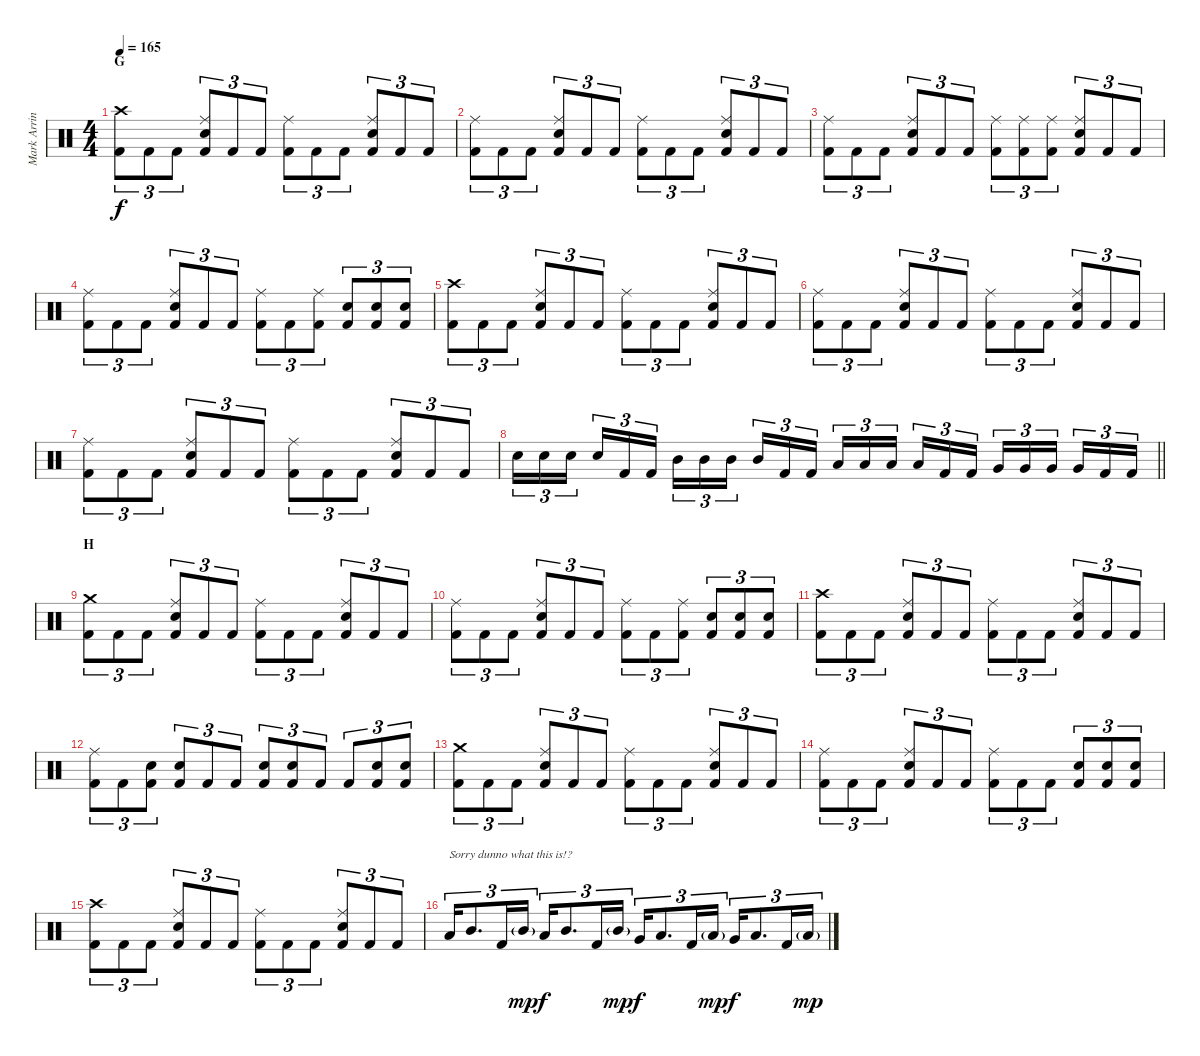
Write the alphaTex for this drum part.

\track ("Mark Arrington Drums" "Mark Arrin") {instrument percussion}
\staff {score}
\articulation defaults
\ts (4 4)
\section ("" "G")
\tempo 165
\clef neutral
\ks c
("Crash high (hit)" "Kick (hit) 2").8{tu (3 2) dy f} "Kick (hit) 2".8{tu (3 2)} "Kick (hit) 2".8{tu (3 2)} ("Ride (middle)" "Electric Snare (hit)" "Kick (hit) 2").8{tu (3 2)} "Kick (hit) 2".8{tu (3 2)} "Kick (hit) 2".8{tu (3 2)} ("Ride (middle)" "Kick (hit) 2").8{tu (3 2)} "Kick (hit) 2".8{tu (3 2)} "Kick (hit) 2".8{tu (3 2)} ("Ride (middle)" "Electric Snare (hit)" "Kick (hit) 2").8{tu (3 2)} "Kick (hit) 2".8{tu (3 2)} "Kick (hit) 2".8{tu (3 2)} |
("Ride (middle)" "Kick (hit) 2").8{tu (3 2)} "Kick (hit) 2".8{tu (3 2)} "Kick (hit) 2".8{tu (3 2)} ("Ride (middle)" "Electric Snare (hit)" "Kick (hit) 2").8{tu (3 2)} "Kick (hit) 2".8{tu (3 2)} "Kick (hit) 2".8{tu (3 2)} ("Ride (middle)" "Kick (hit) 2").8{tu (3 2)} "Kick (hit) 2".8{tu (3 2)} "Kick (hit) 2".8{tu (3 2)} ("Ride (middle)" "Electric Snare (hit)" "Kick (hit) 2").8{tu (3 2)} "Kick (hit) 2".8{tu (3 2)} "Kick (hit) 2".8{tu (3 2)} |
("Ride (middle)" "Kick (hit) 2").8{tu (3 2)} "Kick (hit) 2".8{tu (3 2)} "Kick (hit) 2".8{tu (3 2)} ("Ride (middle)" "Electric Snare (hit)" "Kick (hit) 2").8{tu (3 2)} "Kick (hit) 2".8{tu (3 2)} "Kick (hit) 2".8{tu (3 2)} ("Ride (middle)" "Kick (hit) 2").8{tu (3 2)} ("Ride (middle)" "Kick (hit) 2").8{tu (3 2)} ("Ride (middle)" "Kick (hit) 2").8{tu (3 2)} ("Ride (middle)" "Electric Snare (hit)" "Kick (hit) 2").8{tu (3 2)} "Kick (hit) 2".8{tu (3 2)} "Kick (hit) 2".8{tu (3 2)} |
("Ride (middle)" "Kick (hit) 2").8{tu (3 2)} "Kick (hit) 2".8{tu (3 2)} "Kick (hit) 2".8{tu (3 2)} ("Ride (middle)" "Electric Snare (hit)" "Kick (hit) 2").8{tu (3 2)} "Kick (hit) 2".8{tu (3 2)} "Kick (hit) 2".8{tu (3 2)} ("Ride (middle)" "Kick (hit) 2").8{tu (3 2)} "Kick (hit) 2".8{tu (3 2)} ("Ride (middle)" "Kick (hit) 2").8{tu (3 2)} ("Electric Snare (hit)" "Kick (hit) 2").8{tu (3 2)} ("Electric Snare (hit)" "Kick (hit) 2").8{tu (3 2)} ("Electric Snare (hit)" "Kick (hit) 2").8{tu (3 2)} |
("Crash high (hit)" "Kick (hit) 2").8{tu (3 2)} "Kick (hit) 2".8{tu (3 2)} "Kick (hit) 2".8{tu (3 2)} ("Ride (middle)" "Electric Snare (hit)" "Kick (hit) 2").8{tu (3 2)} "Kick (hit) 2".8{tu (3 2)} "Kick (hit) 2".8{tu (3 2)} ("Ride (middle)" "Kick (hit) 2").8{tu (3 2)} "Kick (hit) 2".8{tu (3 2)} "Kick (hit) 2".8{tu (3 2)} ("Ride (middle)" "Electric Snare (hit)" "Kick (hit) 2").8{tu (3 2)} "Kick (hit) 2".8{tu (3 2)} "Kick (hit) 2".8{tu (3 2)} |
("Ride (middle)" "Kick (hit) 2").8{tu (3 2)} "Kick (hit) 2".8{tu (3 2)} "Kick (hit) 2".8{tu (3 2)} ("Ride (middle)" "Electric Snare (hit)" "Kick (hit) 2").8{tu (3 2)} "Kick (hit) 2".8{tu (3 2)} "Kick (hit) 2".8{tu (3 2)} ("Ride (middle)" "Kick (hit) 2").8{tu (3 2)} "Kick (hit) 2".8{tu (3 2)} "Kick (hit) 2".8{tu (3 2)} ("Ride (middle)" "Electric Snare (hit)" "Kick (hit) 2").8{tu (3 2)} "Kick (hit) 2".8{tu (3 2)} "Kick (hit) 2".8{tu (3 2)} |
("Ride (middle)" "Kick (hit) 2").8{tu (3 2)} "Kick (hit) 2".8{tu (3 2)} "Kick (hit) 2".8{tu (3 2)} ("Ride (middle)" "Electric Snare (hit)" "Kick (hit) 2").8{tu (3 2)} "Kick (hit) 2".8{tu (3 2)} "Kick (hit) 2".8{tu (3 2)} ("Ride (middle)" "Kick (hit) 2").8{tu (3 2)} "Kick (hit) 2".8{tu (3 2)} "Kick (hit) 2".8{tu (3 2)} ("Ride (middle)" "Electric Snare (hit)" "Kick (hit) 2").8{tu (3 2)} "Kick (hit) 2".8{tu (3 2)} "Kick (hit) 2".8{tu (3 2)} |
\barLineRight lightlight "Electric Snare (hit)".16{tu (3 2)} "Electric Snare (hit)".16{tu (3 2)} "Electric Snare (hit)".16{tu (3 2) beam splitsecondary} "Electric Snare (hit)".16{tu (3 2)} "Kick (hit) 2".16{tu (3 2)} "Kick (hit) 2".16{tu (3 2)} "Mid Tom (hit)".16{tu (3 2)} "Mid Tom (hit)".16{tu (3 2)} "Mid Tom (hit)".16{tu (3 2) beam splitsecondary} "Mid Tom (hit)".16{tu (3 2)} "Kick (hit) 2".16{tu (3 2)} "Kick (hit) 2".16{tu (3 2)} "Low Tom (hit)".16{tu (3 2)} "Low Tom (hit)".16{tu (3 2)} "Low Tom (hit)".16{tu (3 2) beam splitsecondary} "Low Tom (hit)".16{tu (3 2)} "Kick (hit) 2".16{tu (3 2)} "Kick (hit) 2".16{tu (3 2)} "Very Low Tom (hit)".16{tu (3 2)} "Very Low Tom (hit)".16{tu (3 2)} "Very Low Tom (hit)".16{tu (3 2) beam splitsecondary} "Very Low Tom (hit)".16{tu (3 2)} "Kick (hit) 2".16{tu (3 2)} "Kick (hit) 2".16{tu (3 2)}
|
\section ("" "H")
("Crash medium (hit)" "Kick (hit) 2").8{tu (3 2)} "Kick (hit) 2".8{tu (3 2)} "Kick (hit) 2".8{tu (3 2)} ("Ride (middle)" "Electric Snare (hit)" "Kick (hit) 2").8{tu (3 2)} "Kick (hit) 2".8{tu (3 2)} "Kick (hit) 2".8{tu (3 2)} ("Ride (middle)" "Kick (hit) 2").8{tu (3 2)} "Kick (hit) 2".8{tu (3 2)} "Kick (hit) 2".8{tu (3 2)} ("Ride (middle)" "Electric Snare (hit)" "Kick (hit) 2").8{tu (3 2)} "Kick (hit) 2".8{tu (3 2)} "Kick (hit) 2".8{tu (3 2)} |
("Ride (middle)" "Kick (hit) 2").8{tu (3 2)} "Kick (hit) 2".8{tu (3 2)} "Kick (hit) 2".8{tu (3 2)} ("Ride (middle)" "Electric Snare (hit)" "Kick (hit) 2").8{tu (3 2)} "Kick (hit) 2".8{tu (3 2)} "Kick (hit) 2".8{tu (3 2)} ("Ride (middle)" "Kick (hit) 2").8{tu (3 2)} "Kick (hit) 2".8{tu (3 2)} ("Ride (middle)" "Kick (hit) 2").8{tu (3 2)} ("Electric Snare (hit)" "Kick (hit) 2").8{tu (3 2)} ("Electric Snare (hit)" "Kick (hit) 2").8{tu (3 2)} ("Electric Snare (hit)" "Kick (hit) 2").8{tu (3 2)} |
("Crash high (hit)" "Kick (hit) 2").8{tu (3 2)} "Kick (hit) 2".8{tu (3 2)} "Kick (hit) 2".8{tu (3 2)} ("Ride (middle)" "Electric Snare (hit)" "Kick (hit) 2").8{tu (3 2)} "Kick (hit) 2".8{tu (3 2)} "Kick (hit) 2".8{tu (3 2)} ("Ride (middle)" "Kick (hit) 2").8{tu (3 2)} "Kick (hit) 2".8{tu (3 2)} "Kick (hit) 2".8{tu (3 2)} ("Ride (middle)" "Electric Snare (hit)" "Kick (hit) 2").8{tu (3 2)} "Kick (hit) 2".8{tu (3 2)} "Kick (hit) 2".8{tu (3 2)} |
("Ride (middle)" "Kick (hit) 2").8{tu (3 2)} "Kick (hit) 2".8{tu (3 2)} ("Electric Snare (hit)" "Kick (hit) 2").8{tu (3 2)} ("Electric Snare (hit)" "Kick (hit) 2").8{tu (3 2)} "Kick (hit) 2".8{tu (3 2)} "Kick (hit) 2".8{tu (3 2)} ("Electric Snare (hit)" "Kick (hit) 2").8{tu (3 2)} ("Electric Snare (hit)" "Kick (hit) 2").8{tu (3 2)} "Kick (hit) 2".8{tu (3 2)} "Kick (hit) 2".8{tu (3 2)} ("Electric Snare (hit)" "Kick (hit) 2").8{tu (3 2)} ("Electric Snare (hit)" "Kick (hit) 2").8{tu (3 2)} |
("Crash medium (hit)" "Kick (hit) 2").8{tu (3 2)} "Kick (hit) 2".8{tu (3 2)} "Kick (hit) 2".8{tu (3 2)} ("Ride (middle)" "Electric Snare (hit)" "Kick (hit) 2").8{tu (3 2)} "Kick (hit) 2".8{tu (3 2)} "Kick (hit) 2".8{tu (3 2)} ("Ride (middle)" "Kick (hit) 2").8{tu (3 2)} "Kick (hit) 2".8{tu (3 2)} "Kick (hit) 2".8{tu (3 2)} ("Ride (middle)" "Electric Snare (hit)" "Kick (hit) 2").8{tu (3 2)} "Kick (hit) 2".8{tu (3 2)} "Kick (hit) 2".8{tu (3 2)} |
("Ride (middle)" "Kick (hit) 2").8{tu (3 2)} "Kick (hit) 2".8{tu (3 2)} "Kick (hit) 2".8{tu (3 2)} ("Ride (middle)" "Electric Snare (hit)" "Kick (hit) 2").8{tu (3 2)} "Kick (hit) 2".8{tu (3 2)} "Kick (hit) 2".8{tu (3 2)} ("Ride (middle)" "Kick (hit) 2").8{tu (3 2)} "Kick (hit) 2".8{tu (3 2)} "Kick (hit) 2".8{tu (3 2)} ("Electric Snare (hit)" "Kick (hit) 2").8{tu (3 2)} ("Electric Snare (hit)" "Kick (hit) 2").8{tu (3 2)} ("Electric Snare (hit)" "Kick (hit) 2").8{tu (3 2)} |
("Crash high (hit)" "Kick (hit) 2").8{tu (3 2)} "Kick (hit) 2".8{tu (3 2)} "Kick (hit) 2".8{tu (3 2)} ("Ride (middle)" "Electric Snare (hit)" "Kick (hit) 2").8{tu (3 2)} "Kick (hit) 2".8{tu (3 2)} "Kick (hit) 2".8{tu (3 2)} ("Ride (middle)" "Kick (hit) 2").8{tu (3 2)} "Kick (hit) 2".8{tu (3 2)} "Kick (hit) 2".8{tu (3 2)} ("Ride (middle)" "Electric Snare (hit)" "Kick (hit) 2").8{tu (3 2)} "Kick (hit) 2".8{tu (3 2)} "Kick (hit) 2".8{tu (3 2)} |
"Low Tom (hit)".16{tu (3 2) txt "Sorry dunno what this is!?"} "Mid Tom (hit)".8{d tu (3 2)} "Kick (hit) 2".16{tu (3 2)} "Mid Tom (hit)"{g}.16{tu (3 2) dy mp} "Low Tom (hit)".16{tu (3 2) dy f} "Mid Tom (hit)".8{d tu (3 2)} "Kick (hit) 2".16{tu (3 2)} "Mid Tom (hit)"{g}.16{tu (3 2) dy mp} "Very Low Tom (hit)".16{tu (3 2) dy f} "Low Tom (hit)".8{d tu (3 2)} "Kick (hit) 2".16{tu (3 2)} "Low Tom (hit)"{g}.16{tu (3 2) dy mp} "Very Low Tom (hit)".16{tu (3 2) dy f} "Low Tom (hit)".8{d tu (3 2)} "Kick (hit) 2".16{tu (3 2)} "Low Tom (hit)"{g}.16{tu (3 2) dy mp}
